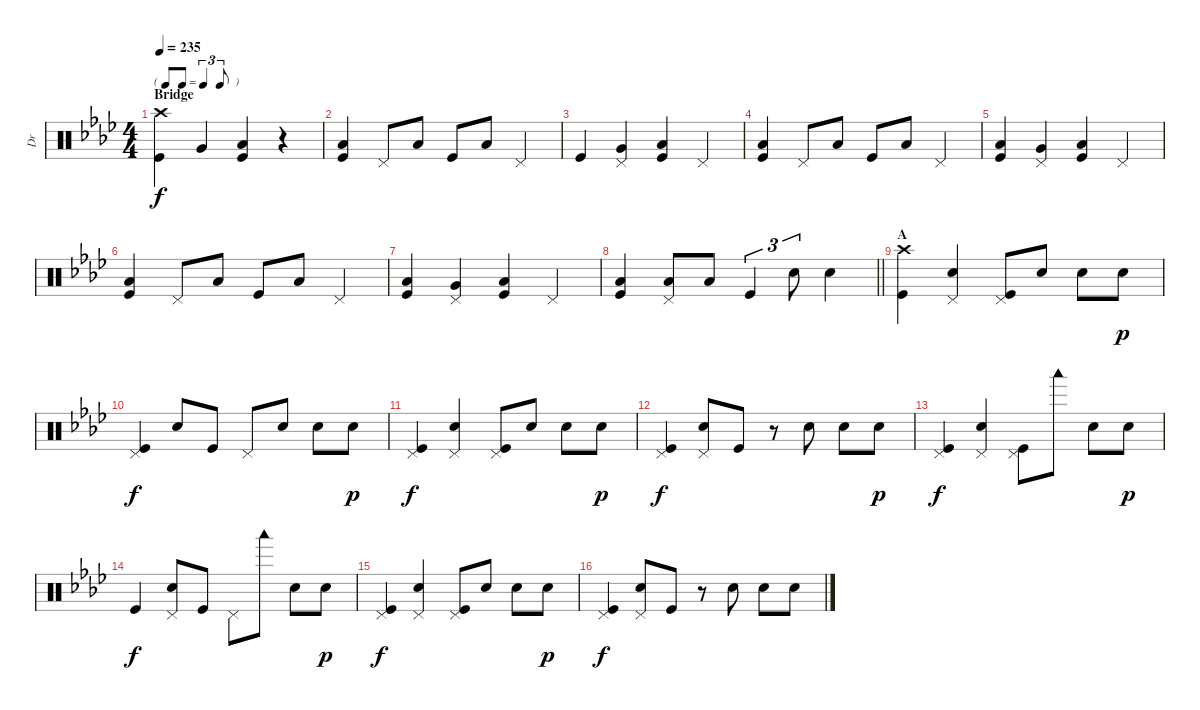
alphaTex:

\track ("Dr" "Dr") {instrument percussion}
\staff {score}
\articulation defaults
\ts (4 4)
\tf triplet8th
\section ("" "Bridge")
\tempo 235
\clef neutral
\ks ab
("Crash high (hit)" "Kick (hit)").4{dy f} "Very Low Tom (hit)".4 ("Low Floor Tom (hit)" "Kick (hit)").4 r.4 |
("Low Floor Tom (hit)" "Kick (hit)").4 "Pedal Hi-Hat (hit)".8 "Low Floor Tom (hit)".8 "Kick (hit)".8 "Low Floor Tom (hit)".8 "Pedal Hi-Hat (hit)".4 |
"Kick (hit)".4 ("Very Low Tom (hit)" "Pedal Hi-Hat (hit)").4 ("Low Floor Tom (hit)" "Kick (hit)").4 "Pedal Hi-Hat (hit)".4 |
("Low Floor Tom (hit)" "Kick (hit)").4 "Pedal Hi-Hat (hit)".8 "Low Floor Tom (hit)".8 "Kick (hit)".8 "Low Floor Tom (hit)".8 "Pedal Hi-Hat (hit)".4 |
("Low Floor Tom (hit)" "Kick (hit)").4 ("Very Low Tom (hit)" "Pedal Hi-Hat (hit)").4 ("Low Floor Tom (hit)" "Kick (hit)").4 "Pedal Hi-Hat (hit)".4 |
("Low Floor Tom (hit)" "Kick (hit)").4 "Pedal Hi-Hat (hit)".8 "Low Floor Tom (hit)".8 "Kick (hit)".8 "Low Floor Tom (hit)".8 "Pedal Hi-Hat (hit)".4 |
("Low Floor Tom (hit)" "Kick (hit)").4 ("Very Low Tom (hit)" "Pedal Hi-Hat (hit)").4 ("Low Floor Tom (hit)" "Kick (hit)").4 "Pedal Hi-Hat (hit)".4 |
\barLineRight lightlight
("Low Floor Tom (hit)" "Kick (hit)").4 ("Low Floor Tom (hit)" "Pedal Hi-Hat (hit)").8 "Low Floor Tom (hit)".8 "Kick (hit)".4{tu (3 2)} "Electric Snare (hit)".8{tu (3 2)} "Electric Snare (hit)".4 |
\section ("" "A")
("Crash high (hit)" "Kick (hit)").4 ("Electric Snare (hit)" "Pedal Hi-Hat (hit)").4 ("Kick (hit)" "Pedal Hi-Hat (hit)").8 "Electric Snare (hit)".8 "Electric Snare (hit)".8 "Electric Snare (hit)".8{dy p} |
("Kick (hit)" "Pedal Hi-Hat (hit)").4{dy f} "Electric Snare (hit)".8 "Kick (hit)".8 "Pedal Hi-Hat (hit)".8 "Electric Snare (hit)".8 "Electric Snare (hit)".8 "Electric Snare (hit)".8{dy p} |
("Kick (hit)" "Pedal Hi-Hat (hit)").4{dy f} ("Electric Snare (hit)" "Pedal Hi-Hat (hit)").4 ("Kick (hit)" "Pedal Hi-Hat (hit)").8 "Electric Snare (hit)".8 "Electric Snare (hit)".8 "Electric Snare (hit)".8{dy p} |
("Kick (hit)" "Pedal Hi-Hat (hit)").4{dy f} ("Electric Snare (hit)" "Pedal Hi-Hat (hit)").8 "Kick (hit)".8 r.8 "Electric Snare (hit)".8 "Electric Snare (hit)".8 "Electric Snare (hit)".8{dy p} |
("Kick (hit)" "Pedal Hi-Hat (hit)").4{dy f} ("Electric Snare (hit)" "Pedal Hi-Hat (hit)").4 ("Kick (hit)" "Pedal Hi-Hat (hit)").8 "Woodblock low (hit)".8 "Electric Snare (hit)".8 "Electric Snare (hit)".8{dy p} |
"Kick (hit)".4{dy f} ("Electric Snare (hit)" "Pedal Hi-Hat (hit)").8 "Kick (hit)".8 "Pedal Hi-Hat (hit)".8 "Woodblock low (hit)".8 "Electric Snare (hit)".8 "Electric Snare (hit)".8{dy p} |
("Kick (hit)" "Pedal Hi-Hat (hit)").4{dy f} ("Electric Snare (hit)" "Pedal Hi-Hat (hit)").4 ("Kick (hit)" "Pedal Hi-Hat (hit)").8 "Electric Snare (hit)".8 "Electric Snare (hit)".8 "Electric Snare (hit)".8{dy p} |
("Kick (hit)" "Pedal Hi-Hat (hit)").4{dy f} ("Electric Snare (hit)" "Pedal Hi-Hat (hit)").8 "Kick (hit)".8 r.8 "Electric Snare (hit)".8 "Electric Snare (hit)".8 "Electric Snare (hit)".8
